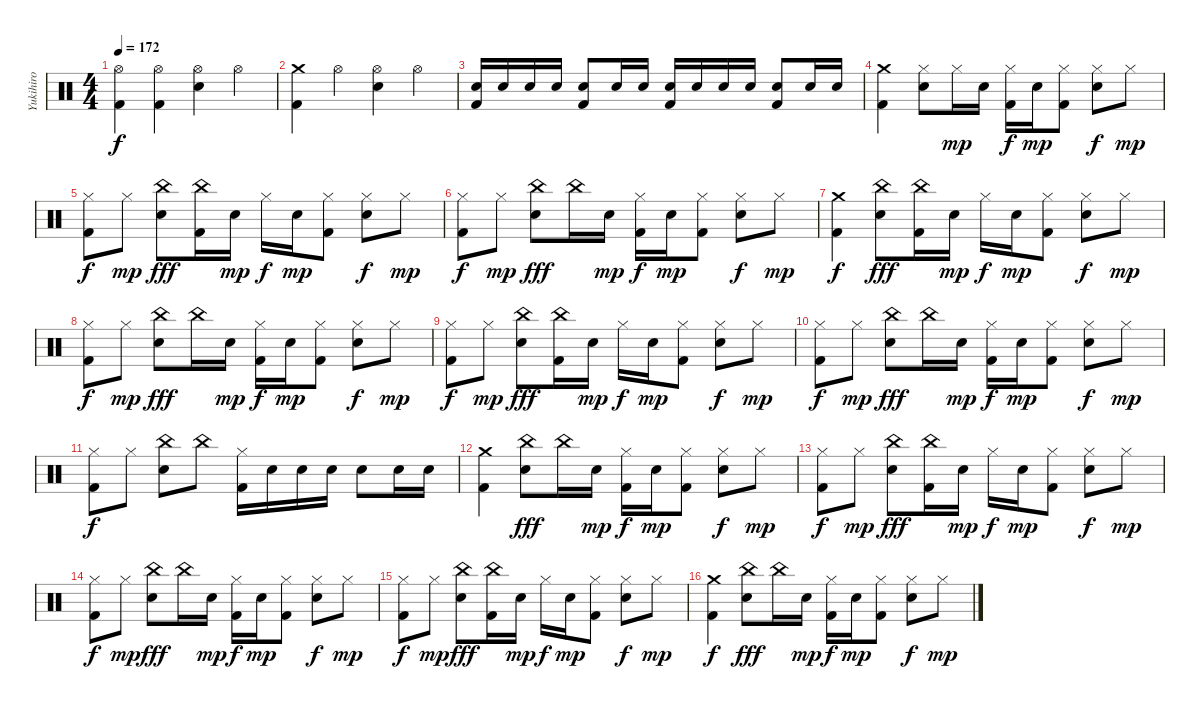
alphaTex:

\track ("Yukihiro" "Yukihiro") {instrument percussion}
\staff {score}
\articulation defaults
\ts (4 4)
\tempo 172
\clef neutral
\ks c
("Hi-Hat (open)" "Kick (hit) 2").4{dy f} ("Hi-Hat (open)" "Kick (hit) 2").4 ("Hi-Hat (open)" "Electric Snare (hit)").4 "Hi-Hat (open)".4 |
("Crash medium (hit)" "Kick (hit) 2").4 "Hi-Hat (open)".4 ("Hi-Hat (open)" "Electric Snare (hit)").4 "Hi-Hat (open)".4 |
("Electric Snare (hit)" "Kick (hit) 2").16 "Electric Snare (hit)".16 "Electric Snare (hit)".16 "Electric Snare (hit)".16 ("Electric Snare (hit)" "Kick (hit) 2").8 "Electric Snare (hit)".16 "Electric Snare (hit)".16 ("Electric Snare (hit)" "Kick (hit) 2").16 "Electric Snare (hit)".16 "Electric Snare (hit)".16 "Electric Snare (hit)".16 ("Electric Snare (hit)" "Kick (hit) 2").8 "Electric Snare (hit)".16 "Electric Snare (hit)".16 |
("Crash medium (hit)" "Kick (hit) 2").4 ("Hi-Hat (closed)" "Electric Snare (hit)").8 "Hi-Hat (closed)".16{dy mp} "Electric Snare (hit)".16 ("Hi-Hat (closed)" "Kick (hit) 2").16{dy f} "Electric Snare (hit)".16{dy mp} ("Hi-Hat (closed)" "Kick (hit) 2").8 ("Hi-Hat (closed)" "Electric Snare (hit)").8{dy f} "Hi-Hat (closed)".8{dy mp} |
("Hi-Hat (closed)" "Kick (hit) 2").8{dy f} "Hi-Hat (closed)".8{dy mp} ("China (hit)" "Electric Snare (hit)").8{dy fff} ("China (hit)" "Kick (hit) 2").16 "Electric Snare (hit)".16{dy mp} "Hi-Hat (closed)".16{dy f} "Electric Snare (hit)".16{dy mp} ("Hi-Hat (closed)" "Kick (hit) 2").8 ("Hi-Hat (closed)" "Electric Snare (hit)").8{dy f} "Hi-Hat (closed)".8{dy mp} |
("Hi-Hat (closed)" "Kick (hit) 2").8{dy f} "Hi-Hat (closed)".8{dy mp} ("China (hit)" "Electric Snare (hit)").8{dy fff} "China (hit)".16 "Electric Snare (hit)".16{dy mp} ("Hi-Hat (closed)" "Kick (hit) 2").16{dy f} "Electric Snare (hit)".16{dy mp} ("Hi-Hat (closed)" "Kick (hit) 2").8 ("Hi-Hat (closed)" "Electric Snare (hit)").8{dy f} "Hi-Hat (closed)".8{dy mp} |
("Crash medium (hit)" "Kick (hit) 2").4{dy f} ("China (hit)" "Electric Snare (hit)").8{dy fff} ("China (hit)" "Kick (hit) 2").16 "Electric Snare (hit)".16{dy mp} "Hi-Hat (closed)".16{dy f} "Electric Snare (hit)".16{dy mp} ("Hi-Hat (closed)" "Kick (hit) 2").8 ("Hi-Hat (closed)" "Electric Snare (hit)").8{dy f} "Hi-Hat (closed)".8{dy mp} |
("Hi-Hat (closed)" "Kick (hit) 2").8{dy f} "Hi-Hat (closed)".8{dy mp} ("China (hit)" "Electric Snare (hit)").8{dy fff} "China (hit)".16 "Electric Snare (hit)".16{dy mp} ("Hi-Hat (closed)" "Kick (hit) 2").16{dy f} "Electric Snare (hit)".16{dy mp} ("Hi-Hat (closed)" "Kick (hit) 2").8 ("Hi-Hat (closed)" "Electric Snare (hit)").8{dy f} "Hi-Hat (closed)".8{dy mp} |
("Hi-Hat (closed)" "Kick (hit) 2").8{dy f} "Hi-Hat (closed)".8{dy mp} ("China (hit)" "Electric Snare (hit)").8{dy fff} ("China (hit)" "Kick (hit) 2").16 "Electric Snare (hit)".16{dy mp} "Hi-Hat (closed)".16{dy f} "Electric Snare (hit)".16{dy mp} ("Hi-Hat (closed)" "Kick (hit) 2").8 ("Hi-Hat (closed)" "Electric Snare (hit)").8{dy f} "Hi-Hat (closed)".8{dy mp} |
("Hi-Hat (closed)" "Kick (hit) 2").8{dy f} "Hi-Hat (closed)".8{dy mp} ("China (hit)" "Electric Snare (hit)").8{dy fff} "China (hit)".16 "Electric Snare (hit)".16{dy mp} ("Hi-Hat (closed)" "Kick (hit) 2").16{dy f} "Electric Snare (hit)".16{dy mp} ("Hi-Hat (closed)" "Kick (hit) 2").8 ("Hi-Hat (closed)" "Electric Snare (hit)").8{dy f} "Hi-Hat (closed)".8{dy mp} |
("Hi-Hat (closed)" "Kick (hit) 2").8{dy f} "Hi-Hat (closed)".8 ("China (hit)" "Electric Snare (hit)").8 "China (hit)".8 ("Hi-Hat (closed)" "Kick (hit) 2").16 "Electric Snare (hit)".16 "Electric Snare (hit)".16 "Electric Snare (hit)".16 "Electric Snare (hit)".8 "Electric Snare (hit)".16 "Electric Snare (hit)".16 |
("Crash medium (hit)" "Kick (hit) 2").4 ("China (hit)" "Electric Snare (hit)").8{dy fff} "China (hit)".16 "Electric Snare (hit)".16{dy mp} ("Hi-Hat (closed)" "Kick (hit) 2").16{dy f} "Electric Snare (hit)".16{dy mp} ("Hi-Hat (closed)" "Kick (hit) 2").8 ("Hi-Hat (closed)" "Electric Snare (hit)").8{dy f} "Hi-Hat (closed)".8{dy mp} |
("Hi-Hat (closed)" "Kick (hit) 2").8{dy f} "Hi-Hat (closed)".8{dy mp} ("China (hit)" "Electric Snare (hit)").8{dy fff} ("China (hit)" "Kick (hit) 2").16 "Electric Snare (hit)".16{dy mp} "Hi-Hat (closed)".16{dy f} "Electric Snare (hit)".16{dy mp} ("Hi-Hat (closed)" "Kick (hit) 2").8 ("Hi-Hat (closed)" "Electric Snare (hit)").8{dy f} "Hi-Hat (closed)".8{dy mp} |
("Hi-Hat (closed)" "Kick (hit) 2").8{dy f} "Hi-Hat (closed)".8{dy mp} ("China (hit)" "Electric Snare (hit)").8{dy fff} "China (hit)".16 "Electric Snare (hit)".16{dy mp} ("Hi-Hat (closed)" "Kick (hit) 2").16{dy f} "Electric Snare (hit)".16{dy mp} ("Hi-Hat (closed)" "Kick (hit) 2").8 ("Hi-Hat (closed)" "Electric Snare (hit)").8{dy f} "Hi-Hat (closed)".8{dy mp} |
("Hi-Hat (closed)" "Kick (hit) 2").8{dy f} "Hi-Hat (closed)".8{dy mp} ("China (hit)" "Electric Snare (hit)").8{dy fff} ("China (hit)" "Kick (hit) 2").16 "Electric Snare (hit)".16{dy mp} "Hi-Hat (closed)".16{dy f} "Electric Snare (hit)".16{dy mp} ("Hi-Hat (closed)" "Kick (hit) 2").8 ("Hi-Hat (closed)" "Electric Snare (hit)").8{dy f} "Hi-Hat (closed)".8{dy mp} |
("Crash medium (hit)" "Kick (hit) 2").4{dy f} ("China (hit)" "Electric Snare (hit)").8{dy fff} "China (hit)".16 "Electric Snare (hit)".16{dy mp} ("Hi-Hat (closed)" "Kick (hit) 2").16{dy f} "Electric Snare (hit)".16{dy mp} ("Hi-Hat (closed)" "Kick (hit) 2").8 ("Hi-Hat (closed)" "Electric Snare (hit)").8{dy f} "Hi-Hat (closed)".8{dy mp}
